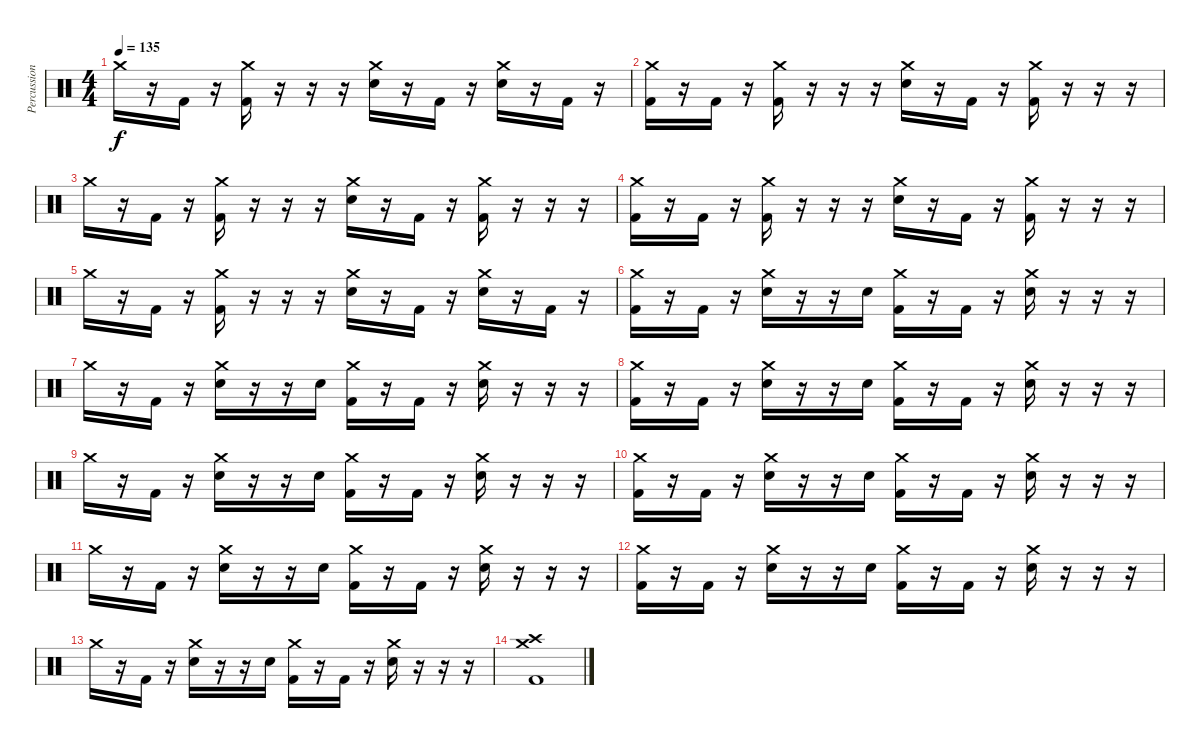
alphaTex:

\track ("Percussion" "Percussion") {instrument percussion}
\staff {score}
\articulation defaults
\ts (4 4)
\tempo 135
\clef neutral
\ks c "Crash medium (hit)".16{dy f}
r.16 "Kick (hit) 2".16 r.16 ("Crash medium (hit)" "Kick (hit) 2").16 r.16 r.16 r.16 ("Crash medium (hit)" "Electric Snare (hit)").16 r.16 "Kick (hit) 2".16 r.16 ("Crash medium (hit)" "Electric Snare (hit)").16 r.16 "Kick (hit) 2".16 r.16 |
("Crash medium (hit)" "Kick (hit) 2").16 r.16 "Kick (hit) 2".16 r.16 ("Crash medium (hit)" "Kick (hit) 2").16 r.16 r.16 r.16 ("Crash medium (hit)" "Electric Snare (hit)").16 r.16 "Kick (hit) 2".16 r.16 ("Crash medium (hit)" "Kick (hit) 2").16 r.16 r.16 r.16 |
"Crash medium (hit)".16 r.16 "Kick (hit) 2".16 r.16 ("Crash medium (hit)" "Kick (hit) 2").16 r.16 r.16 r.16 ("Crash medium (hit)" "Electric Snare (hit)").16 r.16 "Kick (hit) 2".16 r.16 ("Crash medium (hit)" "Kick (hit) 2").16 r.16 r.16 r.16 |
("Crash medium (hit)" "Kick (hit) 2").16 r.16 "Kick (hit) 2".16 r.16 ("Crash medium (hit)" "Kick (hit) 2").16 r.16 r.16 r.16 ("Crash medium (hit)" "Electric Snare (hit)").16 r.16 "Kick (hit) 2".16 r.16 ("Crash medium (hit)" "Kick (hit) 2").16 r.16 r.16 r.16 |
"Crash medium (hit)".16 r.16 "Kick (hit) 2".16 r.16 ("Crash medium (hit)" "Kick (hit) 2").16 r.16 r.16 r.16 ("Crash medium (hit)" "Electric Snare (hit)").16 r.16 "Kick (hit) 2".16 r.16 ("Crash medium (hit)" "Electric Snare (hit)").16 r.16 "Kick (hit) 2".16 r.16 |
("Crash medium (hit)" "Kick (hit) 2").16 r.16 "Kick (hit) 2".16 r.16 ("Crash medium (hit)" "Electric Snare (hit)").16 r.16 r.16 "Electric Snare (hit)".16 ("Crash medium (hit)" "Kick (hit) 2").16 r.16 "Kick (hit) 2".16 r.16 ("Crash medium (hit)" "Electric Snare (hit)").16 r.16 r.16 r.16 |
"Crash medium (hit)".16 r.16 "Kick (hit) 2".16 r.16 ("Crash medium (hit)" "Electric Snare (hit)").16 r.16 r.16 "Electric Snare (hit)".16 ("Crash medium (hit)" "Kick (hit) 2").16 r.16 "Kick (hit) 2".16 r.16 ("Crash medium (hit)" "Electric Snare (hit)").16 r.16 r.16 r.16 |
("Crash medium (hit)" "Kick (hit) 2").16 r.16 "Kick (hit) 2".16 r.16 ("Crash medium (hit)" "Electric Snare (hit)").16 r.16 r.16 "Electric Snare (hit)".16 ("Crash medium (hit)" "Kick (hit) 2").16 r.16 "Kick (hit) 2".16 r.16 ("Crash medium (hit)" "Electric Snare (hit)").16 r.16 r.16 r.16 |
"Crash medium (hit)".16 r.16 "Kick (hit) 2".16 r.16 ("Crash medium (hit)" "Electric Snare (hit)").16 r.16 r.16 "Electric Snare (hit)".16 ("Crash medium (hit)" "Kick (hit) 2").16 r.16 "Kick (hit) 2".16 r.16 ("Crash medium (hit)" "Electric Snare (hit)").16 r.16 r.16 r.16 |
("Crash medium (hit)" "Kick (hit) 2").16 r.16 "Kick (hit) 2".16 r.16 ("Crash medium (hit)" "Electric Snare (hit)").16 r.16 r.16 "Electric Snare (hit)".16 ("Crash medium (hit)" "Kick (hit) 2").16 r.16 "Kick (hit) 2".16 r.16 ("Crash medium (hit)" "Electric Snare (hit)").16 r.16 r.16 r.16 |
"Crash medium (hit)".16 r.16 "Kick (hit) 2".16 r.16 ("Crash medium (hit)" "Electric Snare (hit)").16 r.16 r.16 "Electric Snare (hit)".16 ("Crash medium (hit)" "Kick (hit) 2").16 r.16 "Kick (hit) 2".16 r.16 ("Crash medium (hit)" "Electric Snare (hit)").16 r.16 r.16 r.16 |
("Crash medium (hit)" "Kick (hit) 2").16 r.16 "Kick (hit) 2".16 r.16 ("Crash medium (hit)" "Electric Snare (hit)").16 r.16 r.16 "Electric Snare (hit)".16 ("Crash medium (hit)" "Kick (hit) 2").16 r.16 "Kick (hit) 2".16 r.16 ("Crash medium (hit)" "Electric Snare (hit)").16 r.16 r.16 r.16 |
"Crash medium (hit)".16 r.16 "Kick (hit) 2".16 r.16 ("Crash medium (hit)" "Electric Snare (hit)").16 r.16 r.16 "Electric Snare (hit)".16 ("Crash medium (hit)" "Kick (hit) 2").16 r.16 "Kick (hit) 2".16 r.16 ("Crash medium (hit)" "Electric Snare (hit)").16 r.16 r.16 r.16 |
("Crash high (hit)" "Crash medium (hit)" "Kick (hit) 2").1
